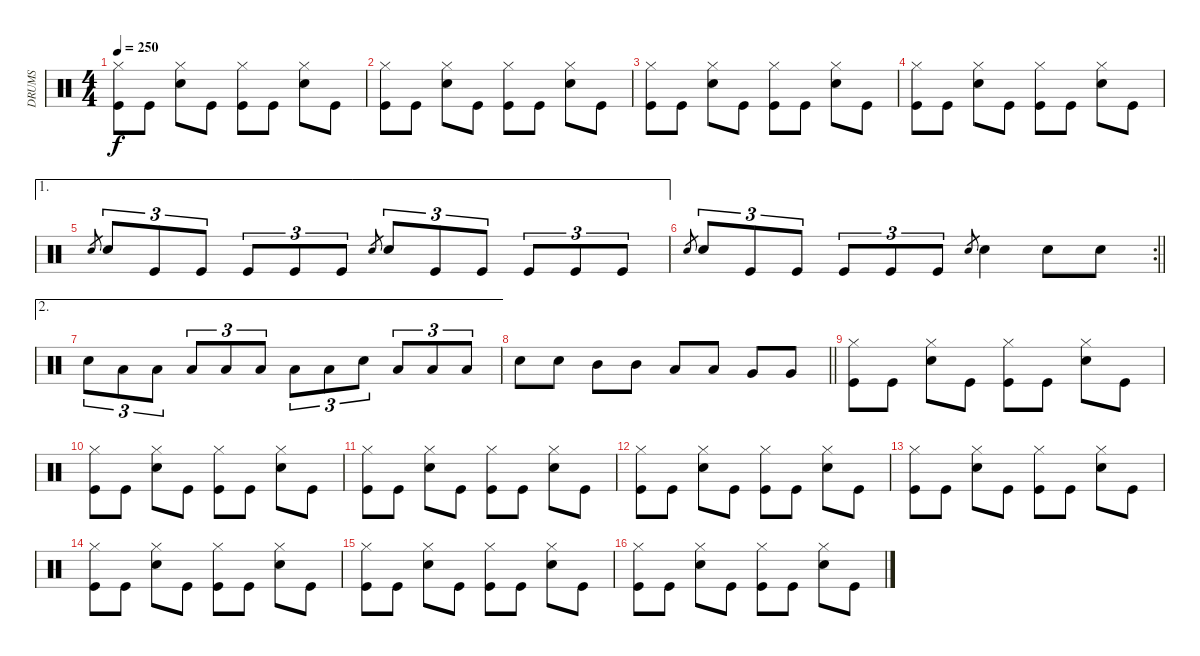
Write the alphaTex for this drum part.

\track ("DRUMS" "DRUMS") {instrument percussion}
\staff {score}
\articulation defaults
\ts (4 4)
\tempo 250
\clef neutral
\ks aminor
("Hi-Hat (closed)" "Kick (hit)").8{dy f} "Kick (hit)".8 ("Hi-Hat (closed)" "Snare (hit) 2").8 "Kick (hit)".8 ("Hi-Hat (closed)" "Kick (hit)").8 "Kick (hit)".8 ("Hi-Hat (closed)" "Snare (hit) 2").8 "Kick (hit)".8 |
("Hi-Hat (closed)" "Kick (hit)").8 "Kick (hit)".8 ("Hi-Hat (closed)" "Snare (hit) 2").8 "Kick (hit)".8 ("Hi-Hat (closed)" "Kick (hit)").8 "Kick (hit)".8 ("Hi-Hat (closed)" "Snare (hit) 2").8 "Kick (hit)".8 |
("Hi-Hat (closed)" "Kick (hit)").8 "Kick (hit)".8 ("Hi-Hat (closed)" "Snare (hit) 2").8 "Kick (hit)".8 ("Hi-Hat (closed)" "Kick (hit)").8 "Kick (hit)".8 ("Hi-Hat (closed)" "Snare (hit) 2").8 "Kick (hit)".8 |
("Hi-Hat (closed)" "Kick (hit)").8 "Kick (hit)".8 ("Hi-Hat (closed)" "Snare (hit) 2").8 "Kick (hit)".8 ("Hi-Hat (closed)" "Kick (hit)").8 "Kick (hit)".8 ("Hi-Hat (closed)" "Snare (hit) 2").8 "Kick (hit)".8 |
\ae 1 "Snare (hit) 2".8{gr} "Snare (hit) 2".8{tu (3 2)} "Kick (hit)".8{tu (3 2)} "Kick (hit)".8{tu (3 2)} "Kick (hit)".8{tu (3 2)} "Kick (hit)".8{tu (3 2)} "Kick (hit)".8{tu (3 2)} "Snare (hit) 2".8{gr} "Snare (hit) 2".8{tu (3 2)} "Kick (hit)".8{tu (3 2)} "Kick (hit)".8{tu (3 2)} "Kick (hit)".8{tu (3 2)} "Kick (hit)".8{tu (3 2)} "Kick (hit)".8{tu (3 2)}
|
\rc 2
\barLineRight lightlight "Snare (hit) 2".8{gr} "Snare (hit) 2".8{tu (3 2)} "Kick (hit)".8{tu (3 2)} "Kick (hit)".8{tu (3 2)} "Kick (hit)".8{tu (3 2)} "Kick (hit)".8{tu (3 2)} "Kick (hit)".8{tu (3 2)} "Snare (hit) 2".8{gr} "Snare (hit) 2".4 "Snare (hit) 2".8 "Snare (hit) 2".8
|
\ae 2 "Snare (hit) 2".8{tu (3 2)} "Low Tom (hit)".8{tu (3 2)} "Low Tom (hit)".8{tu (3 2)} "Low Tom (hit)".8{tu (3 2)} "Low Tom (hit)".8{tu (3 2)} "Low Tom (hit)".8{tu (3 2)} "Low Tom (hit)".8{tu (3 2)} "Low Tom (hit)".8{tu (3 2)} "Snare (hit) 2".8{tu (3 2)} "Low Tom (hit)".8{tu (3 2)} "Low Tom (hit)".8{tu (3 2)} "Low Tom (hit)".8{tu (3 2)}
|
\barLineRight lightlight "Snare (hit) 2".8 "Snare (hit) 2".8 "Mid Tom (hit)".8 "Mid Tom (hit)".8 "Low Tom (hit)".8 "Low Tom (hit)".8 "Very Low Tom (hit)".8 "Very Low Tom (hit)".8
|
("Hi-Hat (closed)" "Kick (hit)").8 "Kick (hit)".8 ("Hi-Hat (closed)" "Snare (hit) 2").8 "Kick (hit)".8 ("Hi-Hat (closed)" "Kick (hit)").8 "Kick (hit)".8 ("Hi-Hat (closed)" "Snare (hit) 2").8 "Kick (hit)".8 |
("Hi-Hat (closed)" "Kick (hit)").8 "Kick (hit)".8 ("Hi-Hat (closed)" "Snare (hit) 2").8 "Kick (hit)".8 ("Hi-Hat (closed)" "Kick (hit)").8 "Kick (hit)".8 ("Hi-Hat (closed)" "Snare (hit) 2").8 "Kick (hit)".8 |
("Hi-Hat (closed)" "Kick (hit)").8 "Kick (hit)".8 ("Hi-Hat (closed)" "Snare (hit) 2").8 "Kick (hit)".8 ("Hi-Hat (closed)" "Kick (hit)").8 "Kick (hit)".8 ("Hi-Hat (closed)" "Snare (hit) 2").8 "Kick (hit)".8 |
("Hi-Hat (closed)" "Kick (hit)").8 "Kick (hit)".8 ("Hi-Hat (closed)" "Snare (hit) 2").8 "Kick (hit)".8 ("Hi-Hat (closed)" "Kick (hit)").8 "Kick (hit)".8 ("Hi-Hat (closed)" "Snare (hit) 2").8 "Kick (hit)".8 |
("Hi-Hat (closed)" "Kick (hit)").8 "Kick (hit)".8 ("Hi-Hat (closed)" "Snare (hit) 2").8 "Kick (hit)".8 ("Hi-Hat (closed)" "Kick (hit)").8 "Kick (hit)".8 ("Hi-Hat (closed)" "Snare (hit) 2").8 "Kick (hit)".8 |
("Hi-Hat (closed)" "Kick (hit)").8 "Kick (hit)".8 ("Hi-Hat (closed)" "Snare (hit) 2").8 "Kick (hit)".8 ("Hi-Hat (closed)" "Kick (hit)").8 "Kick (hit)".8 ("Hi-Hat (closed)" "Snare (hit) 2").8 "Kick (hit)".8 |
("Hi-Hat (closed)" "Kick (hit)").8 "Kick (hit)".8 ("Hi-Hat (closed)" "Snare (hit) 2").8 "Kick (hit)".8 ("Hi-Hat (closed)" "Kick (hit)").8 "Kick (hit)".8 ("Hi-Hat (closed)" "Snare (hit) 2").8 "Kick (hit)".8 |
("Hi-Hat (closed)" "Kick (hit)").8 "Kick (hit)".8 ("Hi-Hat (closed)" "Snare (hit) 2").8 "Kick (hit)".8 ("Hi-Hat (closed)" "Kick (hit)").8 "Kick (hit)".8 ("Hi-Hat (closed)" "Snare (hit) 2").8 "Kick (hit)".8
